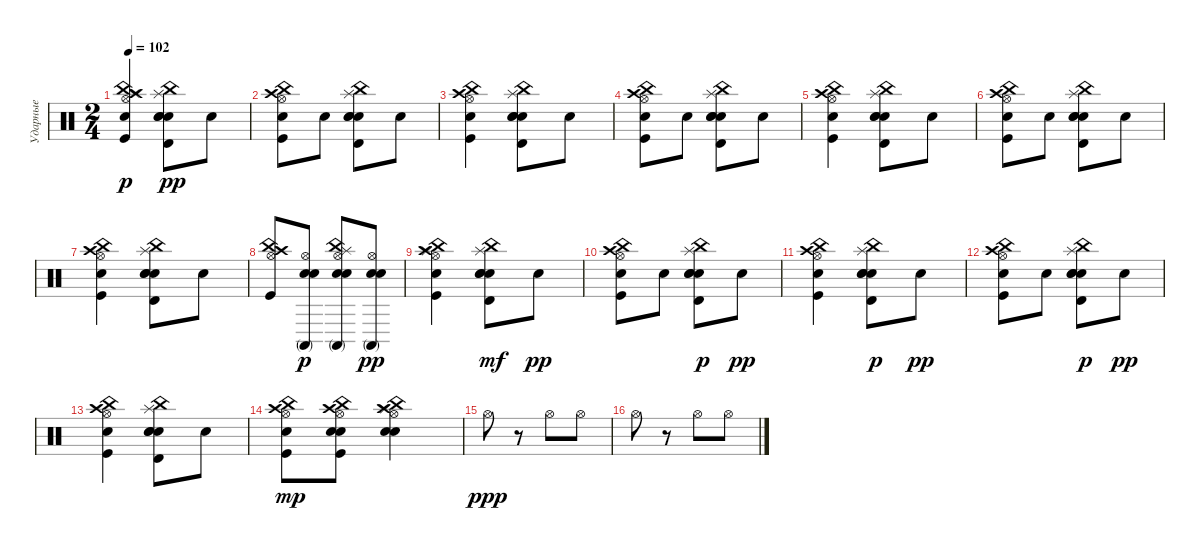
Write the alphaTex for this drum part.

\track ("Ударные" "Ударные") {instrument percussion}
\staff {score}
\articulation defaults
\ts (2 4)
\tempo 102
\clef neutral
\ks c
("Snare (hit) 2" "Hi-Hat (open)" "China (hit)" "Splash (hit)" "Crash high (hit)" "Kick (hit)").4{dy p} ("Timbale high (hit)" "Electric Snare (hit)" "Splash (hit)" "China (hit)" "Snare (hit) 2" "Hand Clap (hit)").8{dy pp} "Hand Clap (hit)".8 |
("Kick (hit)" "Hi-Hat (open)" "China (hit)" "Crash high (hit)" "Hand Clap (hit)").8 "Hand Clap (hit)".8 ("Electric Snare (hit)" "Splash (hit)" "China (hit)" "Snare (hit) 2" "Timbale high (hit)" "Hand Clap (hit)").8 "Hand Clap (hit)".8 |
("Kick (hit)" "Hi-Hat (open)" "China (hit)" "Crash high (hit)" "Hand Clap (hit)").4 ("Splash (hit)" "China (hit)" "Snare (hit) 2" "Timbale high (hit)" "Electric Snare (hit)" "Hand Clap (hit)").8 "Hand Clap (hit)".8 |
("Kick (hit)" "Hi-Hat (open)" "China (hit)" "Crash high (hit)" "Hand Clap (hit)").8 "Hand Clap (hit)".8 ("Splash (hit)" "China (hit)" "Snare (hit) 2" "Electric Snare (hit)" "Timbale high (hit)" "Hand Clap (hit)").8 "Hand Clap (hit)".8 |
("Kick (hit)" "Hi-Hat (open)" "China (hit)" "Crash high (hit)" "Hand Clap (hit)").4 ("Splash (hit)" "China (hit)" "Snare (hit) 2" "Timbale high (hit)" "Electric Snare (hit)" "Hand Clap (hit)").8 "Hand Clap (hit)".8 |
("Kick (hit)" "Hi-Hat (open)" "China (hit)" "Crash high (hit)" "Hand Clap (hit)").8 "Hand Clap (hit)".8 ("Splash (hit)" "China (hit)" "Snare (hit) 2" "Electric Snare (hit)" "Timbale high (hit)" "Hand Clap (hit)").8 "Hand Clap (hit)".8 |
("Kick (hit)" "Hi-Hat (open)" "China (hit)" "Crash high (hit)" "Hand Clap (hit)").4 ("Splash (hit)" "China (hit)" "Snare (hit) 2" "Timbale high (hit)" "Electric Snare (hit)" "Hand Clap (hit)").8 "Hand Clap (hit)".8 |
("Kick (hit)" "Hi-Hat (open)" "China (hit)" "Crash high (hit)").8 ("Snare (hit) 2" "Electric Snare (hit)" "Hi-Hat (open)" "Conga high (mute)").8{dy p} ("China (hit)" "Splash (hit)" "Electric Snare (hit)" "Hi-Hat (open)" "Snare (hit) 2" "Conga high (mute)").8 ("Snare (hit) 2" "Electric Snare (hit)" "Conga high (mute)" "Hi-Hat (open)").8{dy pp} |
("China (hit)" "Crash high (hit)" "Splash (hit)" "Hi-Hat (open)" "Kick (hit)" "Hand Clap (hit)").4 ("Timbale high (hit)" "Snare (hit) 2" "Splash (hit)" "China (hit)" "Hand Clap (hit)" "Electric Snare (hit)").8{dy mf} "Hand Clap (hit)".8{dy pp} |
("Hi-Hat (open)" "China (hit)" "Kick (hit)" "Crash high (hit)" "Hand Clap (hit)").8 "Hand Clap (hit)".8 ("China (hit)" "Splash (hit)" "Hand Clap (hit)" "Snare (hit) 2" "Electric Snare (hit)" "Timbale high (hit)").8{dy p} "Hand Clap (hit)".8{dy pp} |
("Kick (hit)" "Hand Clap (hit)" "China (hit)" "Hi-Hat (open)" "Crash high (hit)").4 ("Splash (hit)" "Electric Snare (hit)" "Hand Clap (hit)" "China (hit)" "Snare (hit) 2" "Timbale high (hit)").8{dy p} "Hand Clap (hit)".8{dy pp} |
("Kick (hit)" "Hand Clap (hit)" "China (hit)" "Hi-Hat (open)" "Crash high (hit)").8 "Hand Clap (hit)".8 ("Electric Snare (hit)" "Timbale high (hit)" "Hand Clap (hit)" "Splash (hit)" "China (hit)" "Snare (hit) 2").8{dy p} "Hand Clap (hit)".8{dy pp} |
("Crash high (hit)" "China (hit)" "Kick (hit)" "Hi-Hat (open)" "Hand Clap (hit)").4 ("Snare (hit) 2" "Electric Snare (hit)" "Timbale high (hit)" "Splash (hit)" "China (hit)" "Hand Clap (hit)").8 "Hand Clap (hit)".8 |
("China (hit)" "Hi-Hat (open)" "Hand Clap (hit)" "Crash high (hit)" "Kick (hit)").8{dy mp} ("Electric Snare (hit)" "China (hit)" "Hi-Hat (open)" "Snare (hit) 2" "Crash high (hit)" "Kick (hit)").8 ("Electric Snare (hit)" "Snare (hit) 2" "Hi-Hat (open)" "China (hit)" "Splash (hit)" "Crash high (hit)").4 |
"Hi-Hat (open)".8{dy ppp} r.8 "Hi-Hat (open)".8 "Hi-Hat (open)".8 |
"Hi-Hat (open)".8 r.8 "Hi-Hat (open)".8 "Hi-Hat (open)".8
